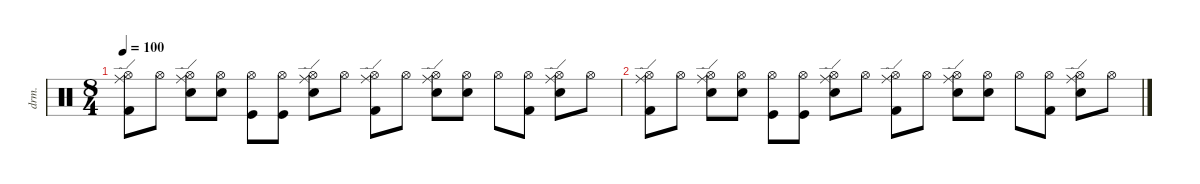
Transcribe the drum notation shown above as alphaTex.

\defaultSystemsLayout 4
\hideDynamics
\bracketExtendMode nobrackets
\otherSystemsTrackNameOrientation horizontal
\track ("Drumkit" "drm.") {instrument percussion}
\staff {score}
\articulation defaults
\ts (8 4)
\tempo 100
\clef neutral
\ks c
("Hi-Hat (open)" "Kick (hit) 2" "Ride (edge)").8{dy mf beam Down} "Hi-Hat (open)".8{beam Down} ("Hi-Hat (open)" "Snare (hit) 2" "Ride (edge)").8{beam Down} ("Hi-Hat (open)" "Snare (hit) 2").8{beam Down} ("Hi-Hat (open)" "Kick (hit)").8{beam Down} ("Hi-Hat (open)" "Kick (hit)").8{beam Down} ("Hi-Hat (open)" "Snare (hit) 2" "Ride (edge)").8{beam Down} "Hi-Hat (open)".8{beam Down} ("Hi-Hat (open)" "Kick (hit) 2" "Ride (edge)").8{beam Down} "Hi-Hat (open)".8{beam Down} ("Hi-Hat (open)" "Snare (hit) 2" "Ride (edge)").8{beam Down} ("Hi-Hat (open)" "Snare (hit) 2").8{beam Down} "Hi-Hat (open)".8{beam Down} ("Hi-Hat (open)" "Kick (hit) 2").8{beam Down} ("Hi-Hat (open)" "Snare (hit) 2" "Ride (edge)").8{beam Down} "Hi-Hat (open)".8{beam Down} |
("Hi-Hat (open)" "Kick (hit) 2" "Ride (edge)").8{beam Down} "Hi-Hat (open)".8{beam Down} ("Hi-Hat (open)" "Snare (hit) 2" "Ride (edge)").8{beam Down} ("Hi-Hat (open)" "Snare (hit) 2").8{beam Down} ("Hi-Hat (open)" "Kick (hit)").8{beam Down} ("Hi-Hat (open)" "Kick (hit)").8{beam Down} ("Hi-Hat (open)" "Snare (hit) 2" "Ride (edge)").8{beam Down} "Hi-Hat (open)".8{beam Down} ("Hi-Hat (open)" "Kick (hit) 2" "Ride (edge)").8{beam Down} "Hi-Hat (open)".8{beam Down} ("Hi-Hat (open)" "Snare (hit) 2" "Ride (edge)").8{beam Down} ("Hi-Hat (open)" "Snare (hit) 2").8{beam Down} "Hi-Hat (open)".8{beam Down} ("Hi-Hat (open)" "Kick (hit) 2").8{beam Down} ("Hi-Hat (open)" "Snare (hit) 2" "Ride (edge)").8{beam Down} "Hi-Hat (open)".8{beam Down}
